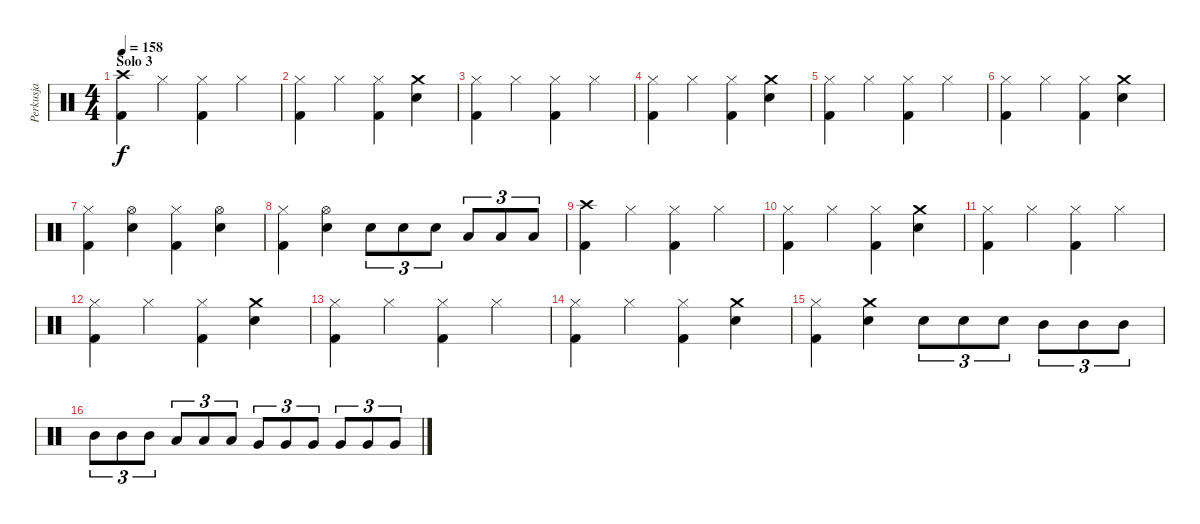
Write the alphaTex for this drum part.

\track ("Perkusja" "Perkusja") {instrument percussion}
\staff {score}
\articulation defaults
\ts (4 4)
\section ("" "Solo 3")
\tempo 158
\clef neutral
\ks c
("Crash high (hit)" "Kick (hit) 2").4{dy f} "Hi-Hat (closed)".4 ("Hi-Hat (closed)" "Kick (hit) 2").4 "Hi-Hat (closed)".4 |
("Hi-Hat (closed)" "Kick (hit) 2").4 "Hi-Hat (closed)".4 ("Hi-Hat (closed)" "Kick (hit) 2").4 ("Crash medium (hit)" "Snare (hit) 2").4 |
("Hi-Hat (closed)" "Kick (hit) 2").4 "Hi-Hat (closed)".4 ("Hi-Hat (closed)" "Kick (hit) 2").4 "Hi-Hat (closed)".4 |
("Hi-Hat (closed)" "Kick (hit) 2").4 "Hi-Hat (closed)".4 ("Hi-Hat (closed)" "Kick (hit) 2").4 ("Crash medium (hit)" "Snare (hit) 2").4 |
("Hi-Hat (closed)" "Kick (hit) 2").4 "Hi-Hat (closed)".4 ("Hi-Hat (closed)" "Kick (hit) 2").4 "Hi-Hat (closed)".4 |
("Hi-Hat (closed)" "Kick (hit) 2").4 "Hi-Hat (closed)".4 ("Hi-Hat (closed)" "Kick (hit) 2").4 ("Crash medium (hit)" "Snare (hit) 2").4 |
("Hi-Hat (closed)" "Kick (hit) 2").4 ("Hi-Hat (open)" "Snare (hit) 2").4 ("Hi-Hat (closed)" "Kick (hit) 2").4 ("Hi-Hat (open)" "Snare (hit) 2").4 |
("Hi-Hat (closed)" "Kick (hit) 2").4 ("Hi-Hat (open)" "Snare (hit) 2").4 "Snare (hit) 2".8{tu (3 2)} "Snare (hit) 2".8{tu (3 2)} "Snare (hit) 2".8{tu (3 2)} "Low Tom (hit)".8{tu (3 2)} "Low Tom (hit)".8{tu (3 2)} "Low Tom (hit)".8{tu (3 2)} |
("Crash high (hit)" "Kick (hit) 2").4 "Hi-Hat (closed)".4 ("Hi-Hat (closed)" "Kick (hit) 2").4 "Hi-Hat (closed)".4 |
("Hi-Hat (closed)" "Kick (hit) 2").4 "Hi-Hat (closed)".4 ("Hi-Hat (closed)" "Kick (hit) 2").4 ("Crash medium (hit)" "Snare (hit) 2").4 |
("Hi-Hat (closed)" "Kick (hit) 2").4 "Hi-Hat (closed)".4 ("Hi-Hat (closed)" "Kick (hit) 2").4 "Hi-Hat (closed)".4 |
("Hi-Hat (closed)" "Kick (hit) 2").4 "Hi-Hat (closed)".4 ("Hi-Hat (closed)" "Kick (hit) 2").4 ("Crash medium (hit)" "Snare (hit) 2").4 |
("Hi-Hat (closed)" "Kick (hit) 2").4 "Hi-Hat (closed)".4 ("Hi-Hat (closed)" "Kick (hit) 2").4 "Hi-Hat (closed)".4 |
("Hi-Hat (closed)" "Kick (hit) 2").4 "Hi-Hat (closed)".4 ("Hi-Hat (closed)" "Kick (hit) 2").4 ("Crash medium (hit)" "Snare (hit) 2").4 |
("Hi-Hat (closed)" "Kick (hit) 2").4 ("Crash medium (hit)" "Snare (hit) 2").4 "Snare (hit) 2".8{tu (3 2)} "Snare (hit) 2".8{tu (3 2)} "Snare (hit) 2".8{tu (3 2)} "Mid Tom (hit)".8{tu (3 2)} "Mid Tom (hit)".8{tu (3 2)} "Mid Tom (hit)".8{tu (3 2)} |
"Mid Tom (hit)".8{tu (3 2)} "Mid Tom (hit)".8{tu (3 2)} "Mid Tom (hit)".8{tu (3 2)} "Low Tom (hit)".8{tu (3 2)} "Low Tom (hit)".8{tu (3 2)} "Low Tom (hit)".8{tu (3 2)} "Very Low Tom (hit)".8{tu (3 2)} "Very Low Tom (hit)".8{tu (3 2)} "Very Low Tom (hit)".8{tu (3 2)} "Very Low Tom (hit)".8{tu (3 2)} "Very Low Tom (hit)".8{tu (3 2)} "Very Low Tom (hit)".8{tu (3 2)}
